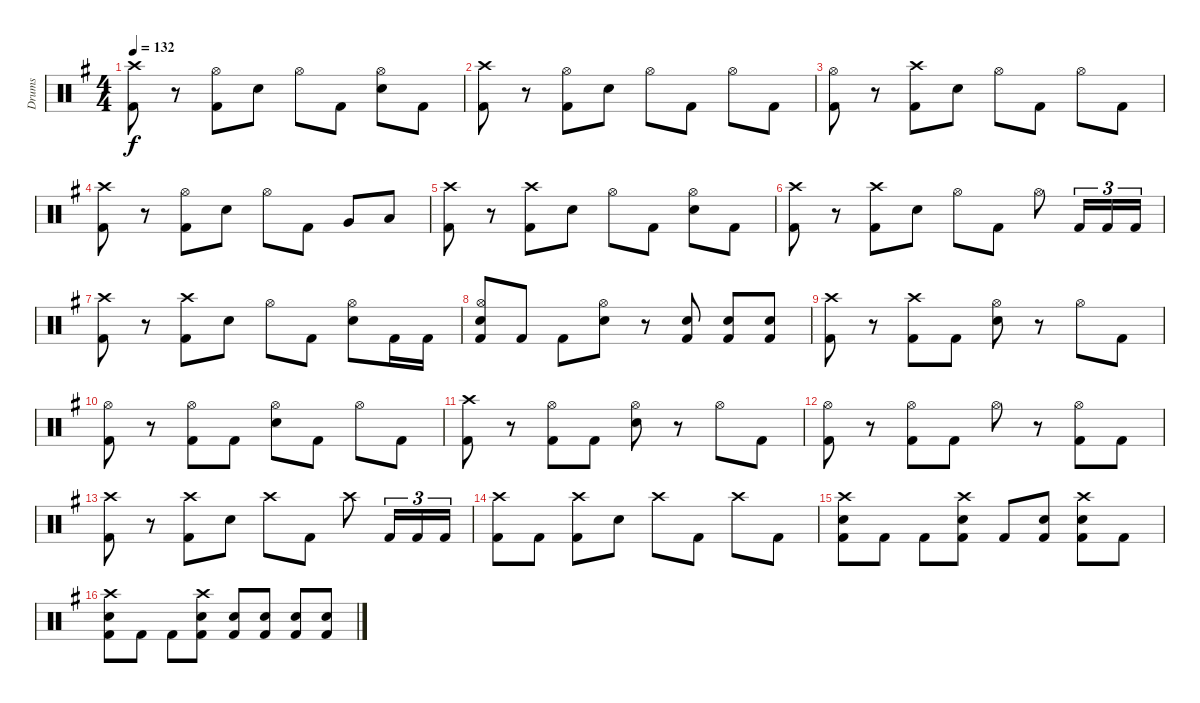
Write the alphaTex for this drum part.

\track ("Drums" "Drums") {instrument percussion}
\staff {score}
\articulation defaults
\ts (4 4)
\tempo 132
\clef neutral
\ks eminor
("Crash high (hit)" "Kick (hit) 2").8{dy f} r.8 ("Hi-Hat (open)" "Kick (hit) 2").8 "Electric Snare (hit)".8 "Hi-Hat (open)".8 "Kick (hit) 2".8 ("Hi-Hat (open)" "Electric Snare (hit)").8 "Kick (hit) 2".8 |
("Crash high (hit)" "Kick (hit) 2").8 r.8 ("Hi-Hat (open)" "Kick (hit) 2").8 "Electric Snare (hit)".8 "Hi-Hat (open)".8 "Kick (hit) 2".8 "Hi-Hat (open)".8 "Kick (hit) 2".8 |
("Hi-Hat (open)" "Kick (hit) 2").8 r.8 ("Crash high (hit)" "Kick (hit) 2").8 "Electric Snare (hit)".8 "Hi-Hat (open)".8 "Kick (hit) 2".8 "Hi-Hat (open)".8 "Kick (hit) 2".8 |
("Crash high (hit)" "Kick (hit) 2").8 r.8 ("Hi-Hat (open)" "Kick (hit) 2").8 "Electric Snare (hit)".8 "Hi-Hat (open)".8 "Kick (hit) 2".8 "Very Low Tom (hit)".8 "Low Floor Tom (hit)".8 |
("Crash high (hit)" "Kick (hit) 2").8 r.8 ("Crash high (hit)" "Kick (hit) 2").8 "Electric Snare (hit)".8 "Hi-Hat (open)".8 "Kick (hit) 2".8 ("Hi-Hat (open)" "Electric Snare (hit)").8 "Kick (hit) 2".8 |
("Crash high (hit)" "Kick (hit) 2").8 r.8 ("Crash high (hit)" "Kick (hit) 2").8 "Electric Snare (hit)".8 "Hi-Hat (open)".8 "Kick (hit) 2".8 "Hi-Hat (open)".8 "Kick (hit) 2".16{tu (3 2)} "Kick (hit) 2".16{tu (3 2)} "Kick (hit) 2".16{tu (3 2)} |
("Crash high (hit)" "Kick (hit) 2").8 r.8 ("Crash high (hit)" "Kick (hit) 2").8 "Electric Snare (hit)".8 "Hi-Hat (open)".8 "Kick (hit) 2".8 ("Hi-Hat (open)" "Electric Snare (hit)").8 "Kick (hit) 2".16 "Kick (hit) 2".16 |
("Hi-Hat (open)" "Electric Snare (hit)" "Kick (hit) 2").8 "Kick (hit) 2".8 "Kick (hit) 2".8 ("Hi-Hat (open)" "Electric Snare (hit)").8 r.8 ("Electric Snare (hit)" "Kick (hit) 2").8 ("Electric Snare (hit)" "Kick (hit) 2").8 ("Electric Snare (hit)" "Kick (hit) 2").8 |
("Crash high (hit)" "Kick (hit) 2").8 r.8 ("Crash high (hit)" "Kick (hit) 2").8 "Kick (hit) 2".8 ("Hi-Hat (open)" "Electric Snare (hit)").8 r.8 "Hi-Hat (open)".8 "Kick (hit) 2".8 |
("Hi-Hat (open)" "Kick (hit) 2").8 r.8 ("Hi-Hat (open)" "Kick (hit) 2").8 "Kick (hit) 2".8 ("Hi-Hat (open)" "Electric Snare (hit)").8 "Kick (hit) 2".8 "Hi-Hat (open)".8 "Kick (hit) 2".8 |
("Crash high (hit)" "Kick (hit) 2").8 r.8 ("Hi-Hat (open)" "Kick (hit) 2").8 "Kick (hit) 2".8 ("Hi-Hat (open)" "Electric Snare (hit)").8 r.8 "Hi-Hat (open)".8 "Kick (hit) 2".8 |
("Hi-Hat (open)" "Kick (hit) 2").8 r.8 ("Hi-Hat (open)" "Kick (hit) 2").8 "Kick (hit) 2".8 "Hi-Hat (open)".8 r.8 ("Hi-Hat (open)" "Kick (hit) 2").8 "Kick (hit) 2".8 |
("Crash high (hit)" "Kick (hit) 2").8 r.8 ("Crash high (hit)" "Kick (hit) 2").8 "Electric Snare (hit)".8 "Crash high (hit)".8 "Kick (hit) 2".8 "Crash high (hit)".8 "Kick (hit) 2".16{tu (3 2)} "Kick (hit) 2".16{tu (3 2)} "Kick (hit) 2".16{tu (3 2)} |
("Crash high (hit)" "Kick (hit) 2").8 "Kick (hit) 2".8 ("Crash high (hit)" "Kick (hit) 2").8 "Electric Snare (hit)".8 "Crash high (hit)".8 "Kick (hit) 2".8 "Crash high (hit)".8 "Kick (hit) 2".8 |
("Crash high (hit)" "Electric Snare (hit)" "Kick (hit) 2").8 "Kick (hit) 2".8 "Kick (hit) 2".8 ("Crash high (hit)" "Electric Snare (hit)" "Kick (hit) 2").8 "Kick (hit) 2".8 ("Electric Snare (hit)" "Kick (hit) 2").8 ("Crash high (hit)" "Electric Snare (hit)" "Kick (hit) 2").8 "Kick (hit) 2".8 |
("Crash high (hit)" "Electric Snare (hit)" "Kick (hit) 2").8 "Kick (hit) 2".8 "Kick (hit) 2".8 ("Crash high (hit)" "Electric Snare (hit)" "Kick (hit) 2").8 ("Electric Snare (hit)" "Kick (hit) 2").8 ("Electric Snare (hit)" "Kick (hit) 2").8 ("Electric Snare (hit)" "Kick (hit) 2").8 ("Electric Snare (hit)" "Kick (hit) 2").8
